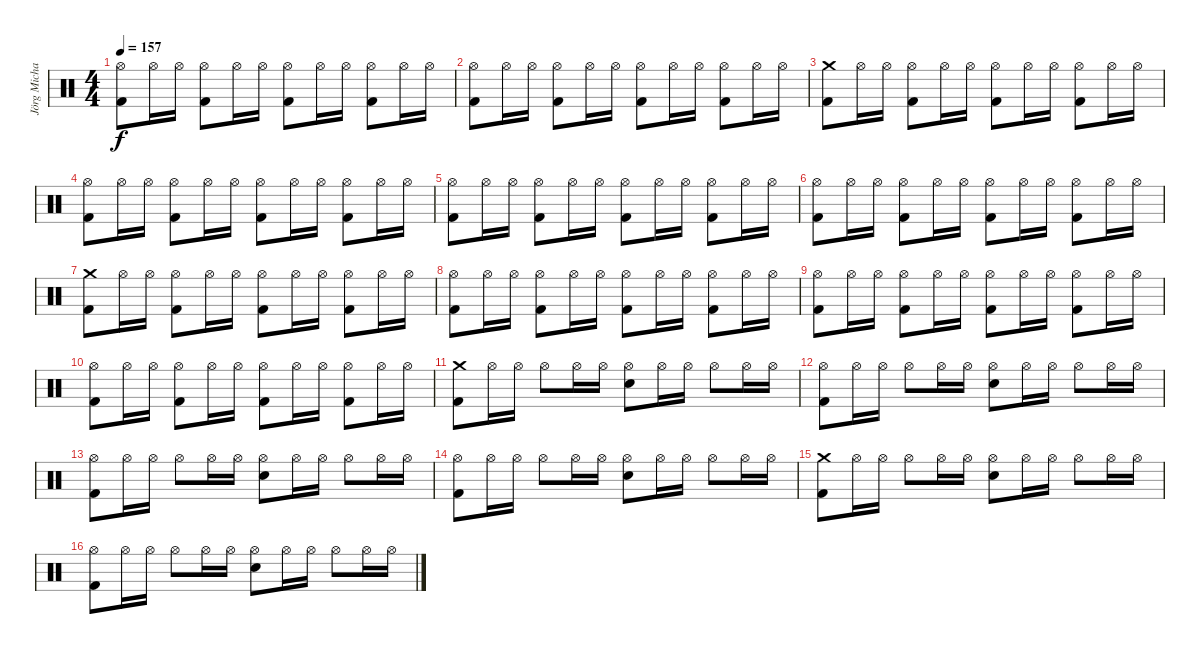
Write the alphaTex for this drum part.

\track ("Jörg Michael" "Jörg Micha") {instrument percussion}
\staff {score}
\articulation defaults
\ts (4 4)
\tempo 157
\clef neutral
\ks c
("Hi-Hat (open)" "Kick (hit) 2").8{dy f} "Hi-Hat (open)".16 "Hi-Hat (open)".16 ("Hi-Hat (open)" "Kick (hit) 2").8 "Hi-Hat (open)".16 "Hi-Hat (open)".16 ("Hi-Hat (open)" "Kick (hit) 2").8 "Hi-Hat (open)".16 "Hi-Hat (open)".16 ("Hi-Hat (open)" "Kick (hit) 2").8 "Hi-Hat (open)".16 "Hi-Hat (open)".16 |
("Hi-Hat (open)" "Kick (hit) 2").8 "Hi-Hat (open)".16 "Hi-Hat (open)".16 ("Hi-Hat (open)" "Kick (hit) 2").8 "Hi-Hat (open)".16 "Hi-Hat (open)".16 ("Hi-Hat (open)" "Kick (hit) 2").8 "Hi-Hat (open)".16 "Hi-Hat (open)".16 ("Hi-Hat (open)" "Kick (hit) 2").8 "Hi-Hat (open)".16 "Hi-Hat (open)".16 |
("Crash medium (hit)" "Kick (hit) 2").8 "Hi-Hat (open)".16 "Hi-Hat (open)".16 ("Hi-Hat (open)" "Kick (hit) 2").8 "Hi-Hat (open)".16 "Hi-Hat (open)".16 ("Hi-Hat (open)" "Kick (hit) 2").8 "Hi-Hat (open)".16 "Hi-Hat (open)".16 ("Hi-Hat (open)" "Kick (hit) 2").8 "Hi-Hat (open)".16 "Hi-Hat (open)".16 |
("Hi-Hat (open)" "Kick (hit) 2").8 "Hi-Hat (open)".16 "Hi-Hat (open)".16 ("Hi-Hat (open)" "Kick (hit) 2").8 "Hi-Hat (open)".16 "Hi-Hat (open)".16 ("Hi-Hat (open)" "Kick (hit) 2").8 "Hi-Hat (open)".16 "Hi-Hat (open)".16 ("Hi-Hat (open)" "Kick (hit) 2").8 "Hi-Hat (open)".16 "Hi-Hat (open)".16 |
("Hi-Hat (open)" "Kick (hit) 2").8 "Hi-Hat (open)".16 "Hi-Hat (open)".16 ("Hi-Hat (open)" "Kick (hit) 2").8 "Hi-Hat (open)".16 "Hi-Hat (open)".16 ("Hi-Hat (open)" "Kick (hit) 2").8 "Hi-Hat (open)".16 "Hi-Hat (open)".16 ("Hi-Hat (open)" "Kick (hit) 2").8 "Hi-Hat (open)".16 "Hi-Hat (open)".16 |
("Hi-Hat (open)" "Kick (hit) 2").8 "Hi-Hat (open)".16 "Hi-Hat (open)".16 ("Hi-Hat (open)" "Kick (hit) 2").8 "Hi-Hat (open)".16 "Hi-Hat (open)".16 ("Hi-Hat (open)" "Kick (hit) 2").8 "Hi-Hat (open)".16 "Hi-Hat (open)".16 ("Hi-Hat (open)" "Kick (hit) 2").8 "Hi-Hat (open)".16 "Hi-Hat (open)".16 |
("Crash medium (hit)" "Kick (hit) 2").8 "Hi-Hat (open)".16 "Hi-Hat (open)".16 ("Hi-Hat (open)" "Kick (hit) 2").8 "Hi-Hat (open)".16 "Hi-Hat (open)".16 ("Hi-Hat (open)" "Kick (hit) 2").8 "Hi-Hat (open)".16 "Hi-Hat (open)".16 ("Hi-Hat (open)" "Kick (hit) 2").8 "Hi-Hat (open)".16 "Hi-Hat (open)".16 |
("Hi-Hat (open)" "Kick (hit) 2").8 "Hi-Hat (open)".16 "Hi-Hat (open)".16 ("Hi-Hat (open)" "Kick (hit) 2").8 "Hi-Hat (open)".16 "Hi-Hat (open)".16 ("Hi-Hat (open)" "Kick (hit) 2").8 "Hi-Hat (open)".16 "Hi-Hat (open)".16 ("Hi-Hat (open)" "Kick (hit) 2").8 "Hi-Hat (open)".16 "Hi-Hat (open)".16 |
("Hi-Hat (open)" "Kick (hit) 2").8 "Hi-Hat (open)".16 "Hi-Hat (open)".16 ("Hi-Hat (open)" "Kick (hit) 2").8 "Hi-Hat (open)".16 "Hi-Hat (open)".16 ("Hi-Hat (open)" "Kick (hit) 2").8 "Hi-Hat (open)".16 "Hi-Hat (open)".16 ("Hi-Hat (open)" "Kick (hit) 2").8 "Hi-Hat (open)".16 "Hi-Hat (open)".16 |
("Hi-Hat (open)" "Kick (hit) 2").8 "Hi-Hat (open)".16 "Hi-Hat (open)".16 ("Hi-Hat (open)" "Kick (hit) 2").8 "Hi-Hat (open)".16 "Hi-Hat (open)".16 ("Hi-Hat (open)" "Kick (hit) 2").8 "Hi-Hat (open)".16 "Hi-Hat (open)".16 ("Hi-Hat (open)" "Kick (hit) 2").8 "Hi-Hat (open)".16 "Hi-Hat (open)".16 |
("Kick (hit) 2" "Crash medium (hit)").8 "Hi-Hat (open)".16 "Hi-Hat (open)".16 "Hi-Hat (open)".8 "Hi-Hat (open)".16 "Hi-Hat (open)".16 ("Snare (hit) 2" "Hi-Hat (open)").8 "Hi-Hat (open)".16 "Hi-Hat (open)".16 "Hi-Hat (open)".8 "Hi-Hat (open)".16 "Hi-Hat (open)".16 |
("Kick (hit) 2" "Hi-Hat (open)").8 "Hi-Hat (open)".16 "Hi-Hat (open)".16 "Hi-Hat (open)".8 "Hi-Hat (open)".16 "Hi-Hat (open)".16 ("Snare (hit) 2" "Hi-Hat (open)").8 "Hi-Hat (open)".16 "Hi-Hat (open)".16 "Hi-Hat (open)".8 "Hi-Hat (open)".16 "Hi-Hat (open)".16 |
("Kick (hit) 2" "Hi-Hat (open)").8 "Hi-Hat (open)".16 "Hi-Hat (open)".16 "Hi-Hat (open)".8 "Hi-Hat (open)".16 "Hi-Hat (open)".16 ("Snare (hit) 2" "Hi-Hat (open)").8 "Hi-Hat (open)".16 "Hi-Hat (open)".16 "Hi-Hat (open)".8 "Hi-Hat (open)".16 "Hi-Hat (open)".16 |
("Kick (hit) 2" "Hi-Hat (open)").8 "Hi-Hat (open)".16 "Hi-Hat (open)".16 "Hi-Hat (open)".8 "Hi-Hat (open)".16 "Hi-Hat (open)".16 ("Snare (hit) 2" "Hi-Hat (open)").8 "Hi-Hat (open)".16 "Hi-Hat (open)".16 "Hi-Hat (open)".8 "Hi-Hat (open)".16 "Hi-Hat (open)".16 |
("Kick (hit) 2" "Crash medium (hit)").8 "Hi-Hat (open)".16 "Hi-Hat (open)".16 "Hi-Hat (open)".8 "Hi-Hat (open)".16 "Hi-Hat (open)".16 ("Snare (hit) 2" "Hi-Hat (open)").8 "Hi-Hat (open)".16 "Hi-Hat (open)".16 "Hi-Hat (open)".8 "Hi-Hat (open)".16 "Hi-Hat (open)".16 |
("Kick (hit) 2" "Hi-Hat (open)").8 "Hi-Hat (open)".16 "Hi-Hat (open)".16 "Hi-Hat (open)".8 "Hi-Hat (open)".16 "Hi-Hat (open)".16 ("Snare (hit) 2" "Hi-Hat (open)").8 "Hi-Hat (open)".16 "Hi-Hat (open)".16 "Hi-Hat (open)".8 "Hi-Hat (open)".16 "Hi-Hat (open)".16
